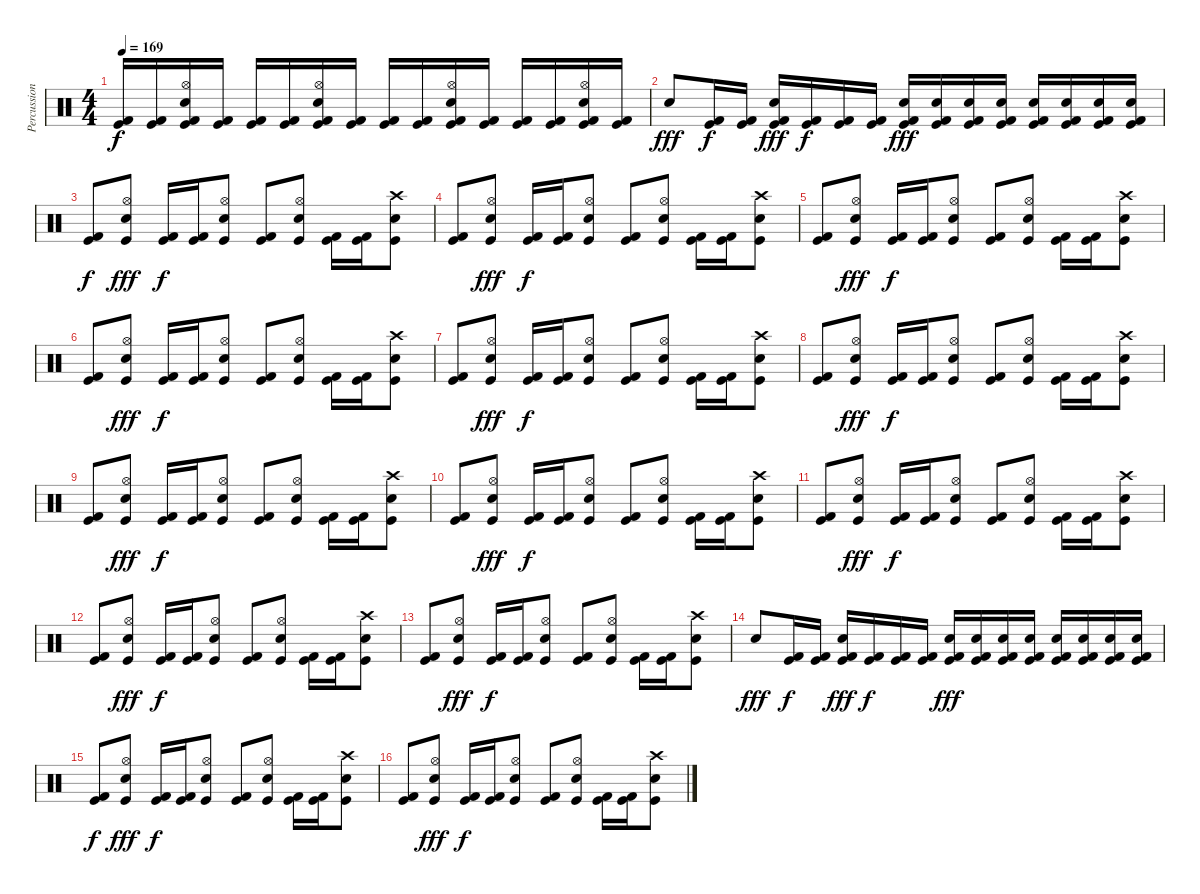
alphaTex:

\track ("Percussion" "Percussion") {instrument percussion}
\staff {score}
\articulation defaults
\ts (4 4)
\tempo 169
\clef neutral
\ks c
("Kick (hit) 2" "Kick (hit)").16{dy f} ("Kick (hit) 2" "Kick (hit)").16 ("Hi-Hat (open)" "Electric Snare (hit)" "Kick (hit) 2" "Kick (hit)").16 ("Kick (hit) 2" "Kick (hit)").16 ("Kick (hit) 2" "Kick (hit)").16 ("Kick (hit) 2" "Kick (hit)").16 ("Hi-Hat (open)" "Electric Snare (hit)" "Kick (hit) 2" "Kick (hit)").16 ("Kick (hit) 2" "Kick (hit)").16 ("Kick (hit) 2" "Kick (hit)").16 ("Kick (hit) 2" "Kick (hit)").16 ("Hi-Hat (open)" "Electric Snare (hit)" "Kick (hit) 2" "Kick (hit)").16 ("Kick (hit) 2" "Kick (hit)").16 ("Kick (hit) 2" "Kick (hit)").16 ("Kick (hit) 2" "Kick (hit)").16 ("Hi-Hat (open)" "Electric Snare (hit)" "Kick (hit) 2" "Kick (hit)").16 ("Kick (hit) 2" "Kick (hit)").16 |
"Electric Snare (hit)".8{dy fff} ("Kick (hit) 2" "Kick (hit)").16{dy f} ("Kick (hit) 2" "Kick (hit)").16 ("Kick (hit) 2" "Electric Snare (hit)" "Kick (hit)").16{dy fff} ("Kick (hit) 2" "Kick (hit)").16{dy f} ("Kick (hit) 2" "Kick (hit)").16 ("Kick (hit) 2" "Kick (hit)").16 ("Kick (hit) 2" "Snare (hit) 2" "Kick (hit)").16{dy fff} ("Kick (hit) 2" "Snare (hit) 2" "Kick (hit)").16 ("Kick (hit) 2" "Snare (hit) 2" "Kick (hit)").16 ("Kick (hit) 2" "Snare (hit) 2" "Kick (hit)").16 ("Kick (hit) 2" "Snare (hit) 2" "Kick (hit)").16 ("Kick (hit) 2" "Snare (hit) 2" "Kick (hit)").16 ("Kick (hit) 2" "Snare (hit) 2" "Kick (hit)").16 ("Kick (hit) 2" "Snare (hit) 2" "Kick (hit)").16 |
("Kick (hit) 2" "Kick (hit)").8{dy f} ("Hi-Hat (open)" "Electric Snare (hit)" "Kick (hit)").8{dy fff} ("Kick (hit) 2" "Kick (hit)").16{dy f} ("Kick (hit) 2" "Kick (hit)").16 ("Hi-Hat (open)" "Electric Snare (hit)" "Kick (hit)").8 ("Kick (hit) 2" "Kick (hit)").8 ("Hi-Hat (open)" "Electric Snare (hit)" "Kick (hit)").8 ("Kick (hit) 2" "Kick (hit)").16 ("Kick (hit) 2" "Kick (hit)").16 ("Crash high (hit)" "Electric Snare (hit)" "Kick (hit)").8 |
("Kick (hit) 2" "Kick (hit)").8 ("Hi-Hat (open)" "Electric Snare (hit)" "Kick (hit)").8{dy fff} ("Kick (hit) 2" "Kick (hit)").16{dy f} ("Kick (hit) 2" "Kick (hit)").16 ("Hi-Hat (open)" "Electric Snare (hit)" "Kick (hit)").8 ("Kick (hit) 2" "Kick (hit)").8 ("Hi-Hat (open)" "Electric Snare (hit)" "Kick (hit)").8 ("Kick (hit) 2" "Kick (hit)").16 ("Kick (hit) 2" "Kick (hit)").16 ("Crash high (hit)" "Electric Snare (hit)" "Kick (hit)").8 |
("Kick (hit) 2" "Kick (hit)").8 ("Hi-Hat (open)" "Electric Snare (hit)" "Kick (hit)").8{dy fff} ("Kick (hit) 2" "Kick (hit)").16{dy f} ("Kick (hit) 2" "Kick (hit)").16 ("Hi-Hat (open)" "Electric Snare (hit)" "Kick (hit)").8 ("Kick (hit) 2" "Kick (hit)").8 ("Hi-Hat (open)" "Electric Snare (hit)" "Kick (hit)").8 ("Kick (hit) 2" "Kick (hit)").16 ("Kick (hit) 2" "Kick (hit)").16 ("Crash high (hit)" "Electric Snare (hit)" "Kick (hit)").8 |
("Kick (hit) 2" "Kick (hit)").8 ("Hi-Hat (open)" "Electric Snare (hit)" "Kick (hit)").8{dy fff} ("Kick (hit) 2" "Kick (hit)").16{dy f} ("Kick (hit) 2" "Kick (hit)").16 ("Hi-Hat (open)" "Electric Snare (hit)" "Kick (hit)").8 ("Kick (hit) 2" "Kick (hit)").8 ("Hi-Hat (open)" "Electric Snare (hit)" "Kick (hit)").8 ("Kick (hit) 2" "Kick (hit)").16 ("Kick (hit) 2" "Kick (hit)").16 ("Crash high (hit)" "Electric Snare (hit)" "Kick (hit)").8 |
("Kick (hit) 2" "Kick (hit)").8 ("Hi-Hat (open)" "Electric Snare (hit)" "Kick (hit)").8{dy fff} ("Kick (hit) 2" "Kick (hit)").16{dy f} ("Kick (hit) 2" "Kick (hit)").16 ("Hi-Hat (open)" "Electric Snare (hit)" "Kick (hit)").8 ("Kick (hit) 2" "Kick (hit)").8 ("Hi-Hat (open)" "Electric Snare (hit)" "Kick (hit)").8 ("Kick (hit) 2" "Kick (hit)").16 ("Kick (hit) 2" "Kick (hit)").16 ("Crash high (hit)" "Electric Snare (hit)" "Kick (hit)").8 |
("Kick (hit) 2" "Kick (hit)").8 ("Hi-Hat (open)" "Electric Snare (hit)" "Kick (hit)").8{dy fff} ("Kick (hit) 2" "Kick (hit)").16{dy f} ("Kick (hit) 2" "Kick (hit)").16 ("Hi-Hat (open)" "Electric Snare (hit)" "Kick (hit)").8 ("Kick (hit) 2" "Kick (hit)").8 ("Hi-Hat (open)" "Electric Snare (hit)" "Kick (hit)").8 ("Kick (hit) 2" "Kick (hit)").16 ("Kick (hit) 2" "Kick (hit)").16 ("Crash high (hit)" "Electric Snare (hit)" "Kick (hit)").8 |
("Kick (hit) 2" "Kick (hit)").8 ("Hi-Hat (open)" "Electric Snare (hit)" "Kick (hit)").8{dy fff} ("Kick (hit) 2" "Kick (hit)").16{dy f} ("Kick (hit) 2" "Kick (hit)").16 ("Hi-Hat (open)" "Electric Snare (hit)" "Kick (hit)").8 ("Kick (hit) 2" "Kick (hit)").8 ("Hi-Hat (open)" "Electric Snare (hit)" "Kick (hit)").8 ("Kick (hit) 2" "Kick (hit)").16 ("Kick (hit) 2" "Kick (hit)").16 ("Crash high (hit)" "Electric Snare (hit)" "Kick (hit)").8 |
("Kick (hit) 2" "Kick (hit)").8 ("Hi-Hat (open)" "Electric Snare (hit)" "Kick (hit)").8{dy fff} ("Kick (hit) 2" "Kick (hit)").16{dy f} ("Kick (hit) 2" "Kick (hit)").16 ("Hi-Hat (open)" "Electric Snare (hit)" "Kick (hit)").8 ("Kick (hit) 2" "Kick (hit)").8 ("Hi-Hat (open)" "Electric Snare (hit)" "Kick (hit)").8 ("Kick (hit) 2" "Kick (hit)").16 ("Kick (hit) 2" "Kick (hit)").16 ("Crash high (hit)" "Electric Snare (hit)" "Kick (hit)").8 |
("Kick (hit) 2" "Kick (hit)").8 ("Hi-Hat (open)" "Electric Snare (hit)" "Kick (hit)").8{dy fff} ("Kick (hit) 2" "Kick (hit)").16{dy f} ("Kick (hit) 2" "Kick (hit)").16 ("Hi-Hat (open)" "Electric Snare (hit)" "Kick (hit)").8 ("Kick (hit) 2" "Kick (hit)").8 ("Hi-Hat (open)" "Electric Snare (hit)" "Kick (hit)").8 ("Kick (hit) 2" "Kick (hit)").16 ("Kick (hit) 2" "Kick (hit)").16 ("Crash high (hit)" "Electric Snare (hit)" "Kick (hit)").8 |
("Kick (hit) 2" "Kick (hit)").8 ("Hi-Hat (open)" "Electric Snare (hit)" "Kick (hit)").8{dy fff} ("Kick (hit) 2" "Kick (hit)").16{dy f} ("Kick (hit) 2" "Kick (hit)").16 ("Hi-Hat (open)" "Electric Snare (hit)" "Kick (hit)").8 ("Kick (hit) 2" "Kick (hit)").8 ("Hi-Hat (open)" "Electric Snare (hit)" "Kick (hit)").8 ("Kick (hit) 2" "Kick (hit)").16 ("Kick (hit) 2" "Kick (hit)").16 ("Crash high (hit)" "Electric Snare (hit)" "Kick (hit)").8 |
("Kick (hit) 2" "Kick (hit)").8 ("Hi-Hat (open)" "Electric Snare (hit)" "Kick (hit)").8{dy fff} ("Kick (hit) 2" "Kick (hit)").16{dy f} ("Kick (hit) 2" "Kick (hit)").16 ("Hi-Hat (open)" "Electric Snare (hit)" "Kick (hit)").8 ("Kick (hit) 2" "Kick (hit)").8 ("Hi-Hat (open)" "Electric Snare (hit)" "Kick (hit)").8 ("Kick (hit) 2" "Kick (hit)").16 ("Kick (hit) 2" "Kick (hit)").16 ("Crash high (hit)" "Electric Snare (hit)" "Kick (hit)").8 |
"Electric Snare (hit)".8{dy fff} ("Kick (hit) 2" "Kick (hit)").16{dy f} ("Kick (hit) 2" "Kick (hit)").16 ("Kick (hit) 2" "Electric Snare (hit)" "Kick (hit)").16{dy fff} ("Kick (hit) 2" "Kick (hit)").16{dy f} ("Kick (hit) 2" "Kick (hit)").16 ("Kick (hit) 2" "Kick (hit)").16 ("Kick (hit) 2" "Snare (hit) 2" "Kick (hit)").16{dy fff} ("Kick (hit) 2" "Snare (hit) 2" "Kick (hit)").16 ("Kick (hit) 2" "Snare (hit) 2" "Kick (hit)").16 ("Kick (hit) 2" "Snare (hit) 2" "Kick (hit)").16 ("Kick (hit) 2" "Snare (hit) 2" "Kick (hit)").16 ("Kick (hit) 2" "Snare (hit) 2" "Kick (hit)").16 ("Kick (hit) 2" "Snare (hit) 2" "Kick (hit)").16 ("Kick (hit) 2" "Snare (hit) 2" "Kick (hit)").16 |
("Kick (hit) 2" "Kick (hit)").8{dy f} ("Hi-Hat (open)" "Electric Snare (hit)" "Kick (hit)").8{dy fff} ("Kick (hit) 2" "Kick (hit)").16{dy f} ("Kick (hit) 2" "Kick (hit)").16 ("Hi-Hat (open)" "Electric Snare (hit)" "Kick (hit)").8 ("Kick (hit) 2" "Kick (hit)").8 ("Hi-Hat (open)" "Electric Snare (hit)" "Kick (hit)").8 ("Kick (hit) 2" "Kick (hit)").16 ("Kick (hit) 2" "Kick (hit)").16 ("Crash high (hit)" "Electric Snare (hit)" "Kick (hit)").8 |
("Kick (hit) 2" "Kick (hit)").8 ("Hi-Hat (open)" "Electric Snare (hit)" "Kick (hit)").8{dy fff} ("Kick (hit) 2" "Kick (hit)").16{dy f} ("Kick (hit) 2" "Kick (hit)").16 ("Hi-Hat (open)" "Electric Snare (hit)" "Kick (hit)").8 ("Kick (hit) 2" "Kick (hit)").8 ("Hi-Hat (open)" "Electric Snare (hit)" "Kick (hit)").8 ("Kick (hit) 2" "Kick (hit)").16 ("Kick (hit) 2" "Kick (hit)").16 ("Crash high (hit)" "Electric Snare (hit)" "Kick (hit)").8
